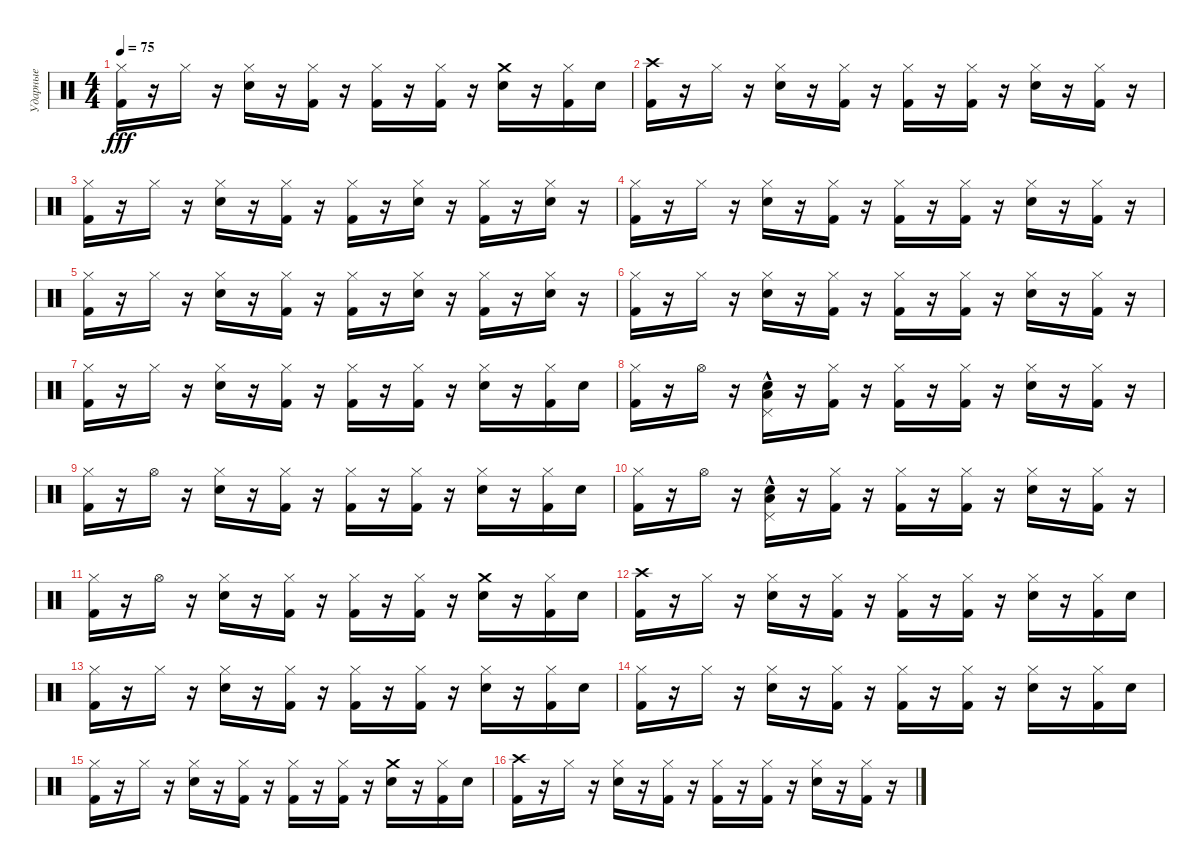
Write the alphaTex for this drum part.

\track ("Ударные" "Ударные") {instrument percussion}
\staff {score}
\articulation defaults
\ts (4 4)
\tempo 75
\clef neutral
\ks c
("Hi-Hat (closed)" "Kick (hit) 2").16{dy fff} r.16 "Hi-Hat (closed)".16 r.16 ("Hi-Hat (closed)" "Electric Snare (hit)").16 r.16 ("Hi-Hat (closed)" "Kick (hit) 2").16 r.16 ("Hi-Hat (closed)" "Kick (hit) 2").16 r.16 ("Hi-Hat (closed)" "Kick (hit) 2").16 r.16 ("Crash medium (hit)" "Electric Snare (hit)").16 r.16 ("Hi-Hat (closed)" "Kick (hit) 2").16 "Electric Snare (hit)".16 |
("Crash high (hit)" "Kick (hit) 2").16 r.16 "Hi-Hat (closed)".16 r.16 ("Hi-Hat (closed)" "Electric Snare (hit)").16 r.16 ("Hi-Hat (closed)" "Kick (hit) 2").16 r.16 ("Hi-Hat (closed)" "Kick (hit) 2").16 r.16 ("Hi-Hat (closed)" "Kick (hit) 2").16 r.16 ("Hi-Hat (closed)" "Electric Snare (hit)").16 r.16 ("Hi-Hat (closed)" "Kick (hit) 2").16 r.16 |
("Hi-Hat (closed)" "Kick (hit) 2").16 r.16 "Hi-Hat (closed)".16 r.16 ("Hi-Hat (closed)" "Electric Snare (hit)").16 r.16 ("Hi-Hat (closed)" "Kick (hit) 2").16 r.16 ("Hi-Hat (closed)" "Kick (hit) 2").16 r.16 ("Hi-Hat (closed)" "Electric Snare (hit)").16 r.16 ("Hi-Hat (closed)" "Kick (hit) 2").16 r.16 ("Hi-Hat (closed)" "Electric Snare (hit)").16 r.16 |
("Hi-Hat (closed)" "Kick (hit) 2").16 r.16 "Hi-Hat (closed)".16 r.16 ("Hi-Hat (closed)" "Electric Snare (hit)").16 r.16 ("Hi-Hat (closed)" "Kick (hit) 2").16 r.16 ("Hi-Hat (closed)" "Kick (hit) 2").16 r.16 ("Hi-Hat (closed)" "Kick (hit) 2").16 r.16 ("Hi-Hat (closed)" "Electric Snare (hit)").16 r.16 ("Hi-Hat (closed)" "Kick (hit) 2").16 r.16 |
("Hi-Hat (closed)" "Kick (hit) 2").16 r.16 "Hi-Hat (closed)".16 r.16 ("Hi-Hat (closed)" "Electric Snare (hit)").16 r.16 ("Hi-Hat (closed)" "Kick (hit) 2").16 r.16 ("Hi-Hat (closed)" "Kick (hit) 2").16 r.16 ("Hi-Hat (closed)" "Electric Snare (hit)").16 r.16 ("Hi-Hat (closed)" "Kick (hit) 2").16 r.16 ("Hi-Hat (closed)" "Electric Snare (hit)").16 r.16 |
("Hi-Hat (closed)" "Kick (hit) 2").16 r.16 "Hi-Hat (closed)".16 r.16 ("Hi-Hat (closed)" "Electric Snare (hit)").16 r.16 ("Hi-Hat (closed)" "Kick (hit) 2").16 r.16 ("Hi-Hat (closed)" "Kick (hit) 2").16 r.16 ("Hi-Hat (closed)" "Kick (hit) 2").16 r.16 ("Hi-Hat (closed)" "Electric Snare (hit)").16 r.16 ("Hi-Hat (closed)" "Kick (hit) 2").16 r.16 |
("Hi-Hat (closed)" "Kick (hit) 2").16 r.16 "Hi-Hat (closed)".16 r.16 ("Hi-Hat (closed)" "Electric Snare (hit)").16 r.16 ("Hi-Hat (closed)" "Kick (hit) 2").16 r.16 ("Hi-Hat (closed)" "Kick (hit) 2").16 r.16 ("Hi-Hat (closed)" "Kick (hit) 2").16 r.16 ("Hi-Hat (closed)" "Electric Snare (hit)").16 r.16 ("Hi-Hat (closed)" "Kick (hit) 2").16 "Electric Snare (hit)".16 |
("Hi-Hat (closed)" "Kick (hit) 2").16 r.16 "Hi-Hat (open)".16 r.16 ("Pedal Hi-Hat (hit)"{hac} "Electric Snare (hit)"{hac} "Low Floor Tom (hit)"{hac}).16 r.16 ("Hi-Hat (closed)" "Kick (hit) 2").16 r.16 ("Hi-Hat (closed)" "Kick (hit) 2").16 r.16 ("Hi-Hat (closed)" "Kick (hit) 2").16 r.16 ("Hi-Hat (closed)" "Electric Snare (hit)").16 r.16 ("Hi-Hat (closed)" "Kick (hit) 2").16 r.16 |
("Hi-Hat (closed)" "Kick (hit) 2").16 r.16 "Hi-Hat (open)".16 r.16 ("Hi-Hat (closed)" "Electric Snare (hit)").16 r.16 ("Hi-Hat (closed)" "Kick (hit) 2").16 r.16 ("Hi-Hat (closed)" "Kick (hit) 2").16 r.16 ("Hi-Hat (closed)" "Kick (hit) 2").16 r.16 ("Hi-Hat (closed)" "Electric Snare (hit)").16 r.16 ("Hi-Hat (closed)" "Kick (hit) 2").16 "Electric Snare (hit)".16 |
("Hi-Hat (closed)" "Kick (hit) 2").16 r.16 "Hi-Hat (open)".16 r.16 ("Pedal Hi-Hat (hit)"{hac} "Electric Snare (hit)"{hac} "Low Floor Tom (hit)").16 r.16 ("Hi-Hat (closed)" "Kick (hit) 2").16 r.16 ("Hi-Hat (closed)" "Kick (hit) 2").16 r.16 ("Hi-Hat (closed)" "Kick (hit) 2").16 r.16 ("Hi-Hat (closed)" "Electric Snare (hit)").16 r.16 ("Hi-Hat (closed)" "Kick (hit) 2").16 r.16 |
("Hi-Hat (closed)" "Kick (hit) 2").16 r.16 "Hi-Hat (open)".16 r.16 ("Hi-Hat (closed)" "Electric Snare (hit)").16 r.16 ("Hi-Hat (closed)" "Kick (hit) 2").16 r.16 ("Hi-Hat (closed)" "Kick (hit) 2").16 r.16 ("Hi-Hat (closed)" "Kick (hit) 2").16 r.16 ("Crash medium (hit)" "Electric Snare (hit)").16 r.16 ("Hi-Hat (closed)" "Kick (hit) 2").16 "Electric Snare (hit)".16 |
("Crash high (hit)" "Kick (hit) 2").16 r.16 "Hi-Hat (closed)".16 r.16 ("Hi-Hat (closed)" "Electric Snare (hit)").16 r.16 ("Hi-Hat (closed)" "Kick (hit) 2").16 r.16 ("Hi-Hat (closed)" "Kick (hit) 2").16 r.16 ("Hi-Hat (closed)" "Kick (hit) 2").16 r.16 ("Hi-Hat (closed)" "Electric Snare (hit)").16 r.16 ("Hi-Hat (closed)" "Kick (hit) 2").16 "Electric Snare (hit)".16 |
("Hi-Hat (closed)" "Kick (hit) 2").16 r.16 "Hi-Hat (closed)".16 r.16 ("Hi-Hat (closed)" "Electric Snare (hit)").16 r.16 ("Hi-Hat (closed)" "Kick (hit) 2").16 r.16 ("Hi-Hat (closed)" "Kick (hit) 2").16 r.16 ("Hi-Hat (closed)" "Kick (hit) 2").16 r.16 ("Hi-Hat (closed)" "Electric Snare (hit)").16 r.16 ("Hi-Hat (closed)" "Kick (hit) 2").16 "Electric Snare (hit)".16 |
("Hi-Hat (closed)" "Kick (hit) 2").16 r.16 "Hi-Hat (closed)".16 r.16 ("Hi-Hat (closed)" "Electric Snare (hit)").16 r.16 ("Hi-Hat (closed)" "Kick (hit) 2").16 r.16 ("Hi-Hat (closed)" "Kick (hit) 2").16 r.16 ("Hi-Hat (closed)" "Kick (hit) 2").16 r.16 ("Hi-Hat (closed)" "Electric Snare (hit)").16 r.16 ("Hi-Hat (closed)" "Kick (hit) 2").16 "Electric Snare (hit)".16 |
("Hi-Hat (closed)" "Kick (hit) 2").16 r.16 "Hi-Hat (closed)".16 r.16 ("Hi-Hat (closed)" "Electric Snare (hit)").16 r.16 ("Hi-Hat (closed)" "Kick (hit) 2").16 r.16 ("Hi-Hat (closed)" "Kick (hit) 2").16 r.16 ("Hi-Hat (closed)" "Kick (hit) 2").16 r.16 ("Crash medium (hit)" "Electric Snare (hit)").16 r.16 ("Hi-Hat (closed)" "Kick (hit) 2").16 "Electric Snare (hit)".16 |
("Crash high (hit)" "Kick (hit) 2").16 r.16 "Hi-Hat (closed)".16 r.16 ("Hi-Hat (closed)" "Electric Snare (hit)").16 r.16 ("Hi-Hat (closed)" "Kick (hit) 2").16 r.16 ("Hi-Hat (closed)" "Kick (hit) 2").16 r.16 ("Hi-Hat (closed)" "Kick (hit) 2").16 r.16 ("Hi-Hat (closed)" "Electric Snare (hit)").16 r.16 ("Hi-Hat (closed)" "Kick (hit) 2").16 r.16
